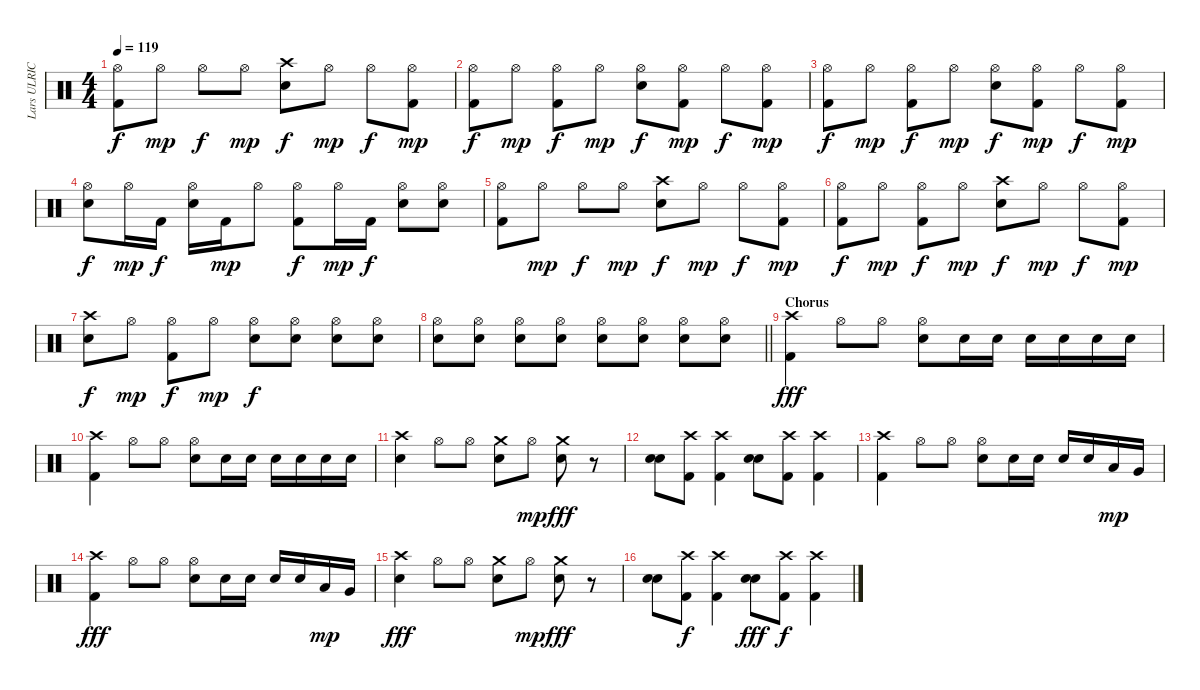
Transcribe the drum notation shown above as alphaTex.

\track ("Lars ULRICH" "Lars ULRIC") {instrument percussion}
\staff {score}
\articulation defaults
\ts (4 4)
\tempo 119
\clef neutral
\ks c
("Hi-Hat (open)" "Kick (hit) 2").8{dy f} "Hi-Hat (open)".8{dy mp} "Hi-Hat (open)".8{dy f} "Hi-Hat (open)".8{dy mp} ("Crash high (hit)" "Snare (hit) 2").8{dy f} "Hi-Hat (open)".8{dy mp} "Hi-Hat (open)".8{dy f} ("Hi-Hat (open)" "Kick (hit) 2").8{dy mp} |
("Hi-Hat (open)" "Kick (hit) 2").8{dy f} "Hi-Hat (open)".8{dy mp} ("Hi-Hat (open)" "Kick (hit) 2").8{dy f} "Hi-Hat (open)".8{dy mp} ("Hi-Hat (open)" "Snare (hit) 2").8{dy f} ("Hi-Hat (open)" "Kick (hit) 2").8{dy mp} "Hi-Hat (open)".8{dy f} ("Hi-Hat (open)" "Kick (hit) 2").8{dy mp} |
("Hi-Hat (open)" "Kick (hit) 2").8{dy f} "Hi-Hat (open)".8{dy mp} ("Hi-Hat (open)" "Kick (hit) 2").8{dy f} "Hi-Hat (open)".8{dy mp} ("Hi-Hat (open)" "Snare (hit) 2").8{dy f} ("Hi-Hat (open)" "Kick (hit) 2").8{dy mp} "Hi-Hat (open)".8{dy f} ("Hi-Hat (open)" "Kick (hit) 2").8{dy mp} |
("Hi-Hat (open)" "Snare (hit) 2").8{dy f} "Hi-Hat (open)".16{dy mp} "Kick (hit) 2".16{dy f} ("Hi-Hat (open)" "Snare (hit) 2").16 "Kick (hit) 2".16{dy mp} "Hi-Hat (open)".8 ("Hi-Hat (open)" "Kick (hit) 2").8{dy f} "Hi-Hat (open)".16{dy mp} "Kick (hit) 2".16{dy f} ("Hi-Hat (open)" "Snare (hit) 2").8 ("Hi-Hat (open)" "Snare (hit) 2").8 |
("Hi-Hat (open)" "Kick (hit) 2").8 "Hi-Hat (open)".8{dy mp} "Hi-Hat (open)".8{dy f} "Hi-Hat (open)".8{dy mp} ("Crash high (hit)" "Snare (hit) 2").8{dy f} "Hi-Hat (open)".8{dy mp} "Hi-Hat (open)".8{dy f} ("Hi-Hat (open)" "Kick (hit) 2").8{dy mp} |
("Hi-Hat (open)" "Kick (hit) 2").8{dy f} "Hi-Hat (open)".8{dy mp} ("Hi-Hat (open)" "Kick (hit) 2").8{dy f} "Hi-Hat (open)".8{dy mp} ("Crash high (hit)" "Snare (hit) 2").8{dy f} "Hi-Hat (open)".8{dy mp} "Hi-Hat (open)".8{dy f} ("Hi-Hat (open)" "Kick (hit) 2").8{dy mp} |
("Crash high (hit)" "Snare (hit) 2").8{dy f} "Hi-Hat (open)".8{dy mp} ("Hi-Hat (open)" "Kick (hit) 2").8{dy f} "Hi-Hat (open)".8{dy mp} ("Hi-Hat (open)" "Snare (hit) 2").8{dy f} ("Hi-Hat (open)" "Snare (hit) 2").8 ("Hi-Hat (open)" "Snare (hit) 2").8 ("Hi-Hat (open)" "Snare (hit) 2").8 |
\barLineRight lightlight
("Hi-Hat (open)" "Snare (hit) 2").8 ("Hi-Hat (open)" "Snare (hit) 2").8 ("Hi-Hat (open)" "Snare (hit) 2").8 ("Hi-Hat (open)" "Snare (hit) 2").8 ("Hi-Hat (open)" "Snare (hit) 2").8 ("Hi-Hat (open)" "Snare (hit) 2").8 ("Hi-Hat (open)" "Snare (hit) 2").8 ("Hi-Hat (open)" "Snare (hit) 2").8 |
\section ("" "Chorus")
("Crash high (hit)" "Kick (hit) 2").4{dy fff} "Hi-Hat (open)".8 "Hi-Hat (open)".8 ("Hi-Hat (open)" "Snare (hit) 2").8 "Snare (hit) 2".16 "Snare (hit) 2".16 "Snare (hit) 2".16 "Snare (hit) 2".16 "Snare (hit) 2".16 "Snare (hit) 2".16 |
("Crash high (hit)" "Kick (hit) 2").4 "Hi-Hat (open)".8 "Hi-Hat (open)".8 ("Hi-Hat (open)" "Snare (hit) 2").8 "Snare (hit) 2".16 "Snare (hit) 2".16 "Snare (hit) 2".16 "Snare (hit) 2".16 "Snare (hit) 2".16 "Snare (hit) 2".16 |
("Crash high (hit)" "Snare (hit) 2").4 "Hi-Hat (open)".8 "Hi-Hat (open)".8 ("Crash medium (hit)" "Snare (hit) 2").8 "Hi-Hat (open)".8{dy mp} ("Crash medium (hit)" "Snare (hit) 2").8{dy fff} r.8 |
("Snare (hit) 2" "Snare (hit) 2").8 ("Crash high (hit)" "Kick (hit) 2").8 ("Crash high (hit)" "Kick (hit) 2").4 ("Snare (hit) 2" "Snare (hit) 2").8 ("Crash high (hit)" "Kick (hit) 2").8 ("Crash high (hit)" "Kick (hit) 2").4 |
("Crash high (hit)" "Kick (hit) 2").4 "Hi-Hat (open)".8 "Hi-Hat (open)".8 ("Hi-Hat (open)" "Snare (hit) 2").8 "Snare (hit) 2".16 "Snare (hit) 2".16 "Snare (hit) 2".16 "Snare (hit) 2".16 "Low Tom (hit)".16{dy mp} "Very Low Tom (hit)".16 |
("Crash high (hit)" "Kick (hit) 2").4{dy fff} "Hi-Hat (open)".8 "Hi-Hat (open)".8 ("Hi-Hat (open)" "Snare (hit) 2").8 "Snare (hit) 2".16 "Snare (hit) 2".16 "Snare (hit) 2".16 "Snare (hit) 2".16 "Low Tom (hit)".16{dy mp} "Very Low Tom (hit)".16 |
("Crash high (hit)" "Snare (hit) 2").4{dy fff} "Hi-Hat (open)".8 "Hi-Hat (open)".8 ("Crash medium (hit)" "Snare (hit) 2").8 "Hi-Hat (open)".8{dy mp} ("Crash medium (hit)" "Snare (hit) 2").8{dy fff} r.8 |
("Snare (hit) 2" "Snare (hit) 2").8 ("Crash high (hit)" "Kick (hit) 2").8{dy f} ("Crash high (hit)" "Kick (hit) 2").4 ("Snare (hit) 2" "Snare (hit) 2").8{dy fff} ("Crash high (hit)" "Kick (hit) 2").8{dy f} ("Crash high (hit)" "Kick (hit) 2").4
